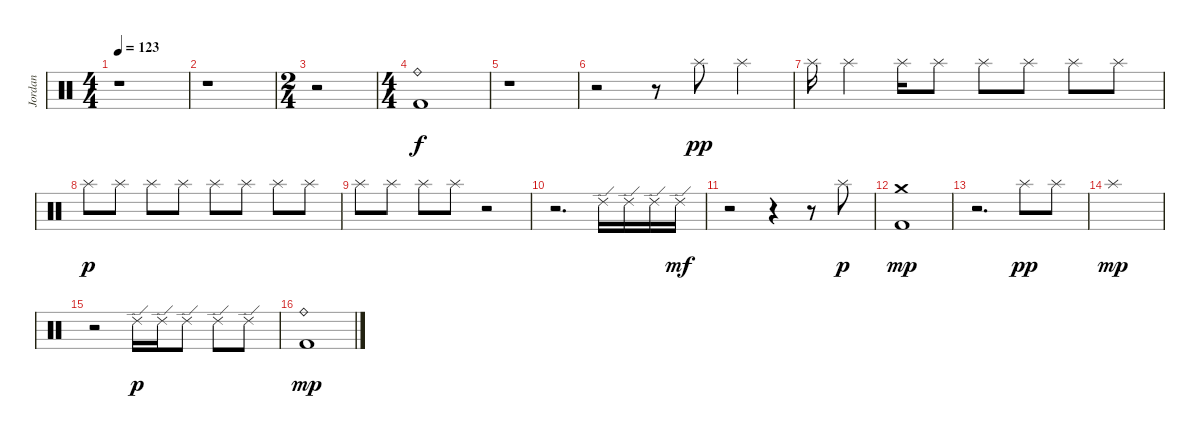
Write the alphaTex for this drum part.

\track ("Jordan" "Jordan") {instrument percussion}
\staff {score}
\articulation defaults
\ts (4 4)
\tempo 123
\clef neutral
\ks c
r.1{dy f} |
r.1 |
\ts (2 4)
r.2 |
\ts (4 4)
("Ride (bell)" "Kick (hit) 2").1 |
r.1 |
r.2 r.8{balance 16} "Splash (hit)".8{dy pp} "Splash (hit)".4 |
"Splash (hit)".16 "Splash (hit)".4 "Splash (hit)".16 "Splash (hit)".8 "Splash (hit)".8 "Splash (hit)".8 "Splash (hit)".8 "Splash (hit)".8 |
"Splash (hit)".8{dy p} "Splash (hit)".8 "Splash (hit)".8 "Splash (hit)".8 "Splash (hit)".8 "Splash (hit)".8 "Splash (hit)".8 "Splash (hit)".8 |
"Splash (hit)".8 "Splash (hit)".8 "Splash (hit)".8 "Splash (hit)".8 r.2 |
r.2{d} "Ride (edge) 2".16{balance 0} "Ride (edge) 2".16 "Ride (edge) 2".16 "Ride (edge) 2".16{dy mf} |
r.2 r.4 r.8 "Splash (hit)".8{dy p balance 8} |
("Crash medium (hit)" "Kick (hit) 2").1{dy mp} |
r.2{d} "Splash (hit)".8{dy pp} "Splash (hit)".8 |
"Splash (hit)".1{dy mp} |
r.2 "Ride (edge) 2".16{dy p} "Ride (edge) 2".16 "Ride (edge) 2".8 "Ride (edge) 2".8 "Ride (edge) 2".8 |
("Ride (bell)" "Kick (hit) 2").1{dy mp}
